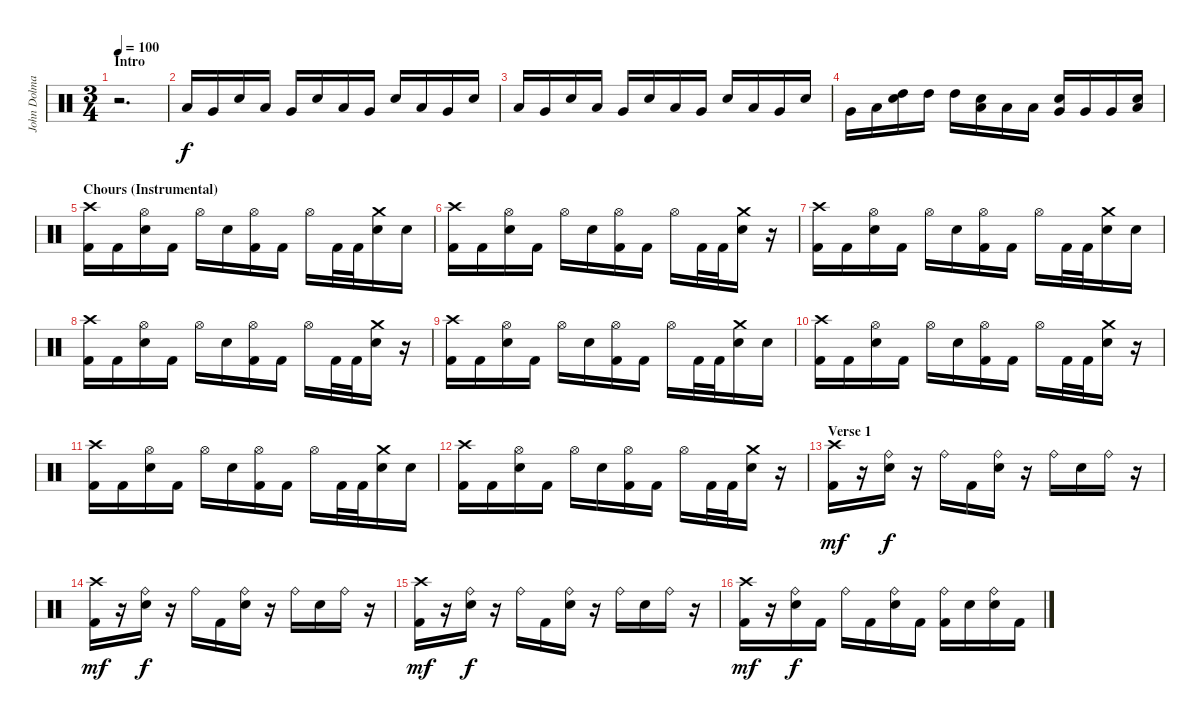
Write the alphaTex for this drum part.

\track ("John Dolmayan" "John Dolma") {instrument percussion}
\staff {score}
\articulation defaults
\ts (3 4)
\section ("" "Intro")
\tempo 100
\clef neutral
\ks c
r.2{d dy f} |
"Low Tom (hit)".16 "Very Low Tom (hit)".16 "Electric Snare (hit)".16 "Low Tom (hit)".16 "Very Low Tom (hit)".16 "Electric Snare (hit)".16 "Low Tom (hit)".16 "Very Low Tom (hit)".16 "Electric Snare (hit)".16 "Low Tom (hit)".16 "Very Low Tom (hit)".16 "Electric Snare (hit)".16 |
"Low Tom (hit)".16 "Very Low Tom (hit)".16 "Electric Snare (hit)".16 "Low Tom (hit)".16 "Very Low Tom (hit)".16 "Electric Snare (hit)".16 "Low Tom (hit)".16 "Very Low Tom (hit)".16 "Electric Snare (hit)".16 "Low Tom (hit)".16 "Very Low Tom (hit)".16 "Electric Snare (hit)".16 |
"Very Low Tom (hit)".16 "Low Floor Tom (hit)".16 ("High Tom (hit)" "Electric Snare (hit)").16 "High Tom (hit)".16 "High Tom (hit)".16 ("Low Tom (hit)" "Electric Snare (hit)").16 "Low Tom (hit)".16 "Low Tom (hit)".16 ("Very Low Tom (hit)" "Electric Snare (hit)").16 "Very Low Tom (hit)".16 "Very Low Tom (hit)".16 ("Low Floor Tom (hit)" "Electric Snare (hit)").16 |
\section ("" "Chours (Instrumental)")
("Crash high (hit)" "Kick (hit) 2").16 "Kick (hit) 2".16 ("Hi-Hat (open)" "Electric Snare (hit)").16 "Kick (hit) 2".16 "Hi-Hat (open)".16 "Electric Snare (hit)".16 ("Hi-Hat (open)" "Kick (hit) 2").16 "Kick (hit) 2".16 "Hi-Hat (open)".16 "Kick (hit) 2".32 "Kick (hit) 2".32 ("Crash medium (hit)" "Electric Snare (hit)").16 "Electric Snare (hit)".16 |
("Crash high (hit)" "Kick (hit) 2").16 "Kick (hit) 2".16 ("Hi-Hat (open)" "Electric Snare (hit)").16 "Kick (hit) 2".16 "Hi-Hat (open)".16 "Electric Snare (hit)".16 ("Hi-Hat (open)" "Kick (hit) 2").16 "Kick (hit) 2".16 "Hi-Hat (open)".16 "Kick (hit) 2".32 "Kick (hit) 2".32 ("Crash medium (hit)" "Electric Snare (hit)").16 r.16 |
("Crash high (hit)" "Kick (hit) 2").16 "Kick (hit) 2".16 ("Hi-Hat (open)" "Electric Snare (hit)").16 "Kick (hit) 2".16 "Hi-Hat (open)".16 "Electric Snare (hit)".16 ("Hi-Hat (open)" "Kick (hit) 2").16 "Kick (hit) 2".16 "Hi-Hat (open)".16 "Kick (hit) 2".32 "Kick (hit) 2".32 ("Crash medium (hit)" "Electric Snare (hit)").16 "Electric Snare (hit)".16 |
("Crash high (hit)" "Kick (hit) 2").16 "Kick (hit) 2".16 ("Hi-Hat (open)" "Electric Snare (hit)").16 "Kick (hit) 2".16 "Hi-Hat (open)".16 "Electric Snare (hit)".16 ("Hi-Hat (open)" "Kick (hit) 2").16 "Kick (hit) 2".16 "Hi-Hat (open)".16 "Kick (hit) 2".32 "Kick (hit) 2".32 ("Crash medium (hit)" "Electric Snare (hit)").16 r.16 |
("Crash high (hit)" "Kick (hit) 2").16 "Kick (hit) 2".16 ("Hi-Hat (open)" "Electric Snare (hit)").16 "Kick (hit) 2".16 "Hi-Hat (open)".16 "Electric Snare (hit)".16 ("Hi-Hat (open)" "Kick (hit) 2").16 "Kick (hit) 2".16 "Hi-Hat (open)".16 "Kick (hit) 2".32 "Kick (hit) 2".32 ("Crash medium (hit)" "Electric Snare (hit)").16 "Electric Snare (hit)".16 |
("Crash high (hit)" "Kick (hit) 2").16 "Kick (hit) 2".16 ("Hi-Hat (open)" "Electric Snare (hit)").16 "Kick (hit) 2".16 "Hi-Hat (open)".16 "Electric Snare (hit)".16 ("Hi-Hat (open)" "Kick (hit) 2").16 "Kick (hit) 2".16 "Hi-Hat (open)".16 "Kick (hit) 2".32 "Kick (hit) 2".32 ("Crash medium (hit)" "Electric Snare (hit)").16 r.16 |
("Crash high (hit)" "Kick (hit) 2").16 "Kick (hit) 2".16 ("Hi-Hat (open)" "Electric Snare (hit)").16 "Kick (hit) 2".16 "Hi-Hat (open)".16 "Electric Snare (hit)".16 ("Hi-Hat (open)" "Kick (hit) 2").16 "Kick (hit) 2".16 "Hi-Hat (open)".16 "Kick (hit) 2".32 "Kick (hit) 2".32 ("Crash medium (hit)" "Electric Snare (hit)").16 "Electric Snare (hit)".16 |
("Crash high (hit)" "Kick (hit) 2").16 "Kick (hit) 2".16 ("Hi-Hat (open)" "Electric Snare (hit)").16 "Kick (hit) 2".16 "Hi-Hat (open)".16 "Electric Snare (hit)".16 ("Hi-Hat (open)" "Kick (hit) 2").16 "Kick (hit) 2".16 "Hi-Hat (open)".16 "Kick (hit) 2".32 "Kick (hit) 2".32 ("Crash medium (hit)" "Electric Snare (hit)").16 r.16 |
\section ("" "Verse 1")
("Crash high (hit)" "Kick (hit) 2").16{dy mf} r.16 ("Ride (bell)" "Electric Snare (hit)").16{dy f} r.16 "Ride (bell)".16 "Kick (hit) 2".16 ("Ride (bell)" "Electric Snare (hit)").16 r.16 "Ride (bell)".16 "Electric Snare (hit)".16 "Ride (bell)".16 r.16 |
("Crash high (hit)" "Kick (hit) 2").16{dy mf} r.16 ("Ride (bell)" "Electric Snare (hit)").16{dy f} r.16 "Ride (bell)".16 "Kick (hit) 2".16 ("Ride (bell)" "Electric Snare (hit)").16 r.16 "Ride (bell)".16 "Electric Snare (hit)".16 "Ride (bell)".16 r.16 |
("Crash high (hit)" "Kick (hit) 2").16{dy mf} r.16 ("Ride (bell)" "Electric Snare (hit)").16{dy f} r.16 "Ride (bell)".16 "Kick (hit) 2".16 ("Ride (bell)" "Electric Snare (hit)").16 r.16 "Ride (bell)".16 "Electric Snare (hit)".16 "Ride (bell)".16 r.16 |
("Crash high (hit)" "Kick (hit) 2").16{dy mf} r.16 ("Ride (bell)" "Electric Snare (hit)").16{dy f} "Kick (hit) 2".16 "Ride (bell)".16 "Kick (hit) 2".16 ("Ride (bell)" "Electric Snare (hit)").16 "Kick (hit) 2".16 ("Ride (bell)" "Kick (hit) 2").16 "Electric Snare (hit)".16 ("Ride (bell)" "Electric Snare (hit)").16 "Kick (hit) 2".16
